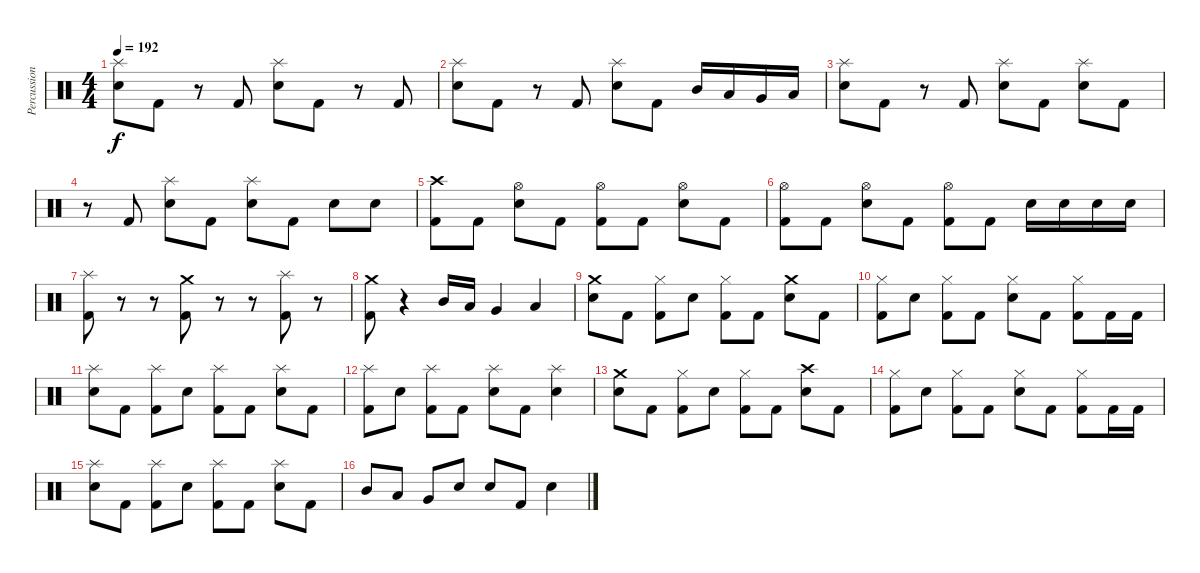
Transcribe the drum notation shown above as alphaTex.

\track ("Percussion" "Percussion") {instrument percussion}
\staff {score}
\articulation defaults
\ts (4 4)
\tempo 192
\clef neutral
\ks c
("Splash (hit)" "Electric Snare (hit)").8{dy f} "Kick (hit) 2".8 r.8 "Kick (hit) 2".8 ("Splash (hit)" "Electric Snare (hit)").8 "Kick (hit) 2".8 r.8 "Kick (hit) 2".8 |
("Splash (hit)" "Electric Snare (hit)").8 "Kick (hit) 2".8 r.8 "Kick (hit) 2".8 ("Splash (hit)" "Electric Snare (hit)").8 "Kick (hit) 2".8 "Mid Tom (hit)".16 "Low Tom (hit)".16 "Very Low Tom (hit)".16 "Low Floor Tom (hit)".16 |
("Splash (hit)" "Electric Snare (hit)").8 "Kick (hit) 2".8 r.8 "Kick (hit) 2".8 ("Splash (hit)" "Electric Snare (hit)").8 "Kick (hit) 2".8 ("Splash (hit)" "Electric Snare (hit)").8 "Kick (hit) 2".8 |
r.8 "Kick (hit) 2".8 ("Splash (hit)" "Electric Snare (hit)").8 "Kick (hit) 2".8 ("Splash (hit)" "Electric Snare (hit)").8 "Kick (hit) 2".8 "Electric Snare (hit)".8 "Electric Snare (hit)".8 |
("Crash high (hit)" "Kick (hit) 2").8 "Kick (hit) 2".8 ("Hi-Hat (open)" "Electric Snare (hit)").8 "Kick (hit) 2".8 ("Hi-Hat (open)" "Kick (hit) 2").8 "Kick (hit) 2".8 ("Hi-Hat (open)" "Electric Snare (hit)").8 "Kick (hit) 2".8 |
("Hi-Hat (open)" "Kick (hit) 2").8 "Kick (hit) 2".8 ("Hi-Hat (open)" "Electric Snare (hit)").8 "Kick (hit) 2".8 ("Hi-Hat (open)" "Kick (hit) 2").8 "Kick (hit) 2".8 "Electric Snare (hit)".16 "Electric Snare (hit)".16 "Electric Snare (hit)".16 "Electric Snare (hit)".16 |
("Splash (hit)" "Kick (hit) 2").8 r.8 r.8 ("Crash medium (hit)" "Kick (hit) 2").8 r.8 r.8 ("Splash (hit)" "Kick (hit) 2").8 r.8 |
("Crash medium (hit)" "Kick (hit) 2").8 r.4 "Mid Tom (hit)".16 "Low Tom (hit)".16 "Very Low Tom (hit)".4 "Low Floor Tom (hit)".4 |
("Crash medium (hit)" "Electric Snare (hit)").8{volume 13} "Kick (hit) 2".8 ("Hi-Hat (closed)" "Kick (hit) 2").8 "Electric Snare (hit)".8 ("Hi-Hat (closed)" "Kick (hit) 2").8 "Kick (hit) 2".8 ("Crash medium (hit)" "Electric Snare (hit)").8 "Kick (hit) 2".8 |
("Hi-Hat (closed)" "Kick (hit) 2").8 "Electric Snare (hit)".8 ("Hi-Hat (closed)" "Kick (hit) 2").8 "Kick (hit) 2".8 ("Hi-Hat (closed)" "Electric Snare (hit)").8 "Kick (hit) 2".8 ("Hi-Hat (closed)" "Kick (hit) 2").8 "Kick (hit) 2".16 "Kick (hit) 2".16 |
("Splash (hit)" "Electric Snare (hit)").8 "Kick (hit) 2".8 ("Splash (hit)" "Kick (hit) 2").8 "Electric Snare (hit)".8 ("Splash (hit)" "Kick (hit) 2").8 "Kick (hit) 2".8 ("Splash (hit)" "Electric Snare (hit)").8 "Kick (hit) 2".8 |
("Splash (hit)" "Kick (hit) 2").8 "Electric Snare (hit)".8 ("Splash (hit)" "Kick (hit) 2").8 "Kick (hit) 2".8 ("Splash (hit)" "Electric Snare (hit)").8 "Kick (hit) 2".8 ("Splash (hit)" "Electric Snare (hit)").4 |
("Crash medium (hit)" "Electric Snare (hit)").8 "Kick (hit) 2".8 ("Hi-Hat (closed)" "Kick (hit) 2").8 "Electric Snare (hit)".8 ("Hi-Hat (closed)" "Kick (hit) 2").8 "Kick (hit) 2".8 ("Crash high (hit)" "Electric Snare (hit)").8 "Kick (hit) 2".8 |
("Hi-Hat (closed)" "Kick (hit) 2").8 "Electric Snare (hit)".8 ("Hi-Hat (closed)" "Kick (hit) 2").8 "Kick (hit) 2".8 ("Hi-Hat (closed)" "Electric Snare (hit)").8 "Kick (hit) 2".8 ("Hi-Hat (closed)" "Kick (hit) 2").8 "Kick (hit) 2".16 "Kick (hit) 2".16 |
("Splash (hit)" "Electric Snare (hit)").8 "Kick (hit) 2".8 ("Splash (hit)" "Kick (hit) 2").8 "Electric Snare (hit)".8 ("Splash (hit)" "Kick (hit) 2").8 "Kick (hit) 2".8 ("Splash (hit)" "Electric Snare (hit)").8 "Kick (hit) 2".8 |
"Mid Tom (hit)".8 "Low Tom (hit)".8 "Very Low Tom (hit)".8 "Electric Snare (hit)".8 "Electric Snare (hit)".8 "Kick (hit) 2".8 "Electric Snare (hit)".4
